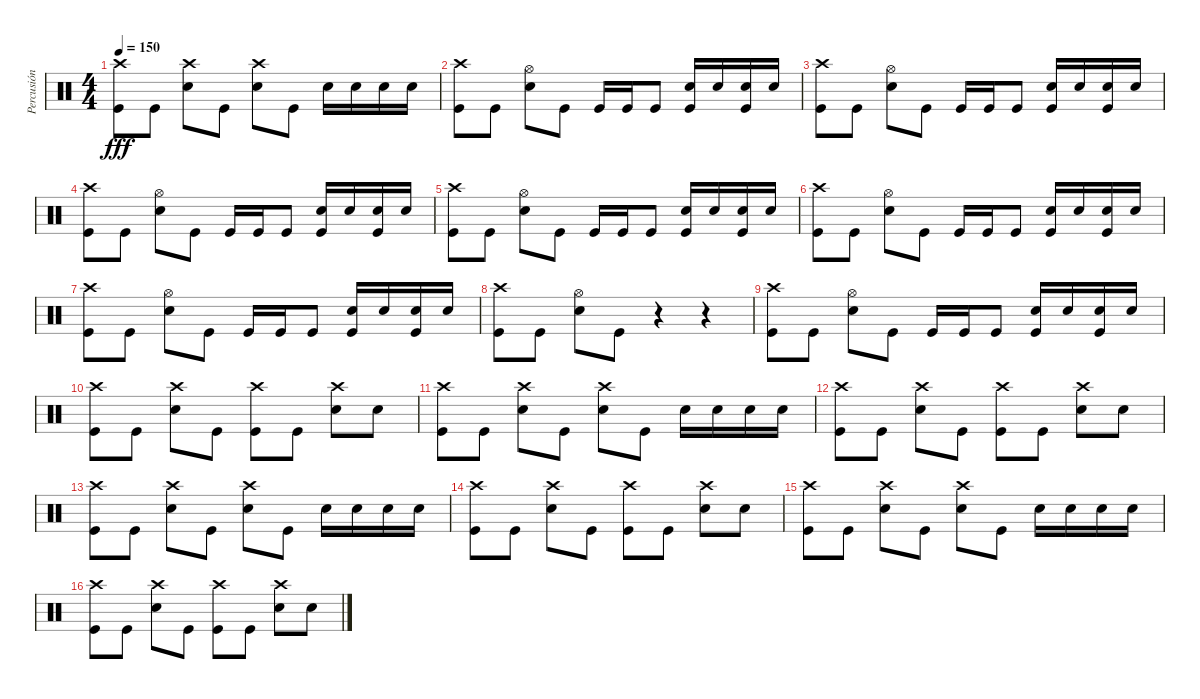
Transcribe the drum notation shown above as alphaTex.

\track ("Percusión" "Percusión") {instrument percussion}
\staff {score}
\articulation defaults
\ts (4 4)
\tempo 150
\clef neutral
\ks c
("Crash high (hit)" "Kick (hit)").8{dy fff} "Kick (hit)".8 ("Crash high (hit)" "Snare (hit) 2").8 "Kick (hit)".8 ("Crash high (hit)" "Snare (hit) 2").8 "Kick (hit)".8 "Snare (hit) 2".16 "Snare (hit) 2".16 "Snare (hit) 2".16 "Snare (hit) 2".16 |
("Kick (hit)" "Crash high (hit)").8 "Kick (hit)".8 ("Snare (hit) 2" "Hi-Hat (open)").8 "Kick (hit)".8 "Kick (hit)".16 "Kick (hit)".16 "Kick (hit)".8 ("Kick (hit)" "Snare (hit) 2").16 "Snare (hit) 2".16 ("Snare (hit) 2" "Kick (hit)").16 "Snare (hit) 2".16 |
("Kick (hit)" "Crash high (hit)").8 "Kick (hit)".8 ("Snare (hit) 2" "Hi-Hat (open)").8 "Kick (hit)".8 "Kick (hit)".16 "Kick (hit)".16 "Kick (hit)".8 ("Kick (hit)" "Snare (hit) 2").16 "Snare (hit) 2".16 ("Snare (hit) 2" "Kick (hit)").16 "Snare (hit) 2".16 |
("Kick (hit)" "Crash high (hit)").8 "Kick (hit)".8 ("Snare (hit) 2" "Hi-Hat (open)").8 "Kick (hit)".8 "Kick (hit)".16 "Kick (hit)".16 "Kick (hit)".8 ("Kick (hit)" "Snare (hit) 2").16 "Snare (hit) 2".16 ("Snare (hit) 2" "Kick (hit)").16 "Snare (hit) 2".16 |
("Kick (hit)" "Crash high (hit)").8 "Kick (hit)".8 ("Snare (hit) 2" "Hi-Hat (open)").8 "Kick (hit)".8 "Kick (hit)".16 "Kick (hit)".16 "Kick (hit)".8 ("Kick (hit)" "Snare (hit) 2").16 "Snare (hit) 2".16 ("Snare (hit) 2" "Kick (hit)").16 "Snare (hit) 2".16 |
("Kick (hit)" "Crash high (hit)").8 "Kick (hit)".8 ("Snare (hit) 2" "Hi-Hat (open)").8 "Kick (hit)".8 "Kick (hit)".16 "Kick (hit)".16 "Kick (hit)".8 ("Kick (hit)" "Snare (hit) 2").16 "Snare (hit) 2".16 ("Snare (hit) 2" "Kick (hit)").16 "Snare (hit) 2".16 |
("Kick (hit)" "Crash high (hit)").8 "Kick (hit)".8 ("Snare (hit) 2" "Hi-Hat (open)").8 "Kick (hit)".8 "Kick (hit)".16 "Kick (hit)".16 "Kick (hit)".8 ("Kick (hit)" "Snare (hit) 2").16 "Snare (hit) 2".16 ("Snare (hit) 2" "Kick (hit)").16 "Snare (hit) 2".16 |
("Kick (hit)" "Crash high (hit)").8 "Kick (hit)".8 ("Snare (hit) 2" "Hi-Hat (open)").8 "Kick (hit)".8 r.4 r.4 |
("Kick (hit)" "Crash high (hit)").8 "Kick (hit)".8 ("Snare (hit) 2" "Hi-Hat (open)").8 "Kick (hit)".8 "Kick (hit)".16 "Kick (hit)".16 "Kick (hit)".8 ("Kick (hit)" "Snare (hit) 2").16 "Snare (hit) 2".16 ("Snare (hit) 2" "Kick (hit)").16 "Snare (hit) 2".16 |
("Crash high (hit)" "Kick (hit)").8 "Kick (hit)".8 ("Crash high (hit)" "Snare (hit) 2").8 "Kick (hit)".8 ("Kick (hit)" "Crash high (hit)").8 "Kick (hit)".8 ("Snare (hit) 2" "Crash high (hit)").8 "Snare (hit) 2".8 |
("Crash high (hit)" "Kick (hit)").8 "Kick (hit)".8 ("Crash high (hit)" "Snare (hit) 2").8 "Kick (hit)".8 ("Crash high (hit)" "Snare (hit) 2").8 "Kick (hit)".8 "Snare (hit) 2".16 "Snare (hit) 2".16 "Snare (hit) 2".16 "Snare (hit) 2".16 |
("Crash high (hit)" "Kick (hit)").8 "Kick (hit)".8 ("Crash high (hit)" "Snare (hit) 2").8 "Kick (hit)".8 ("Kick (hit)" "Crash high (hit)").8 "Kick (hit)".8 ("Snare (hit) 2" "Crash high (hit)").8 "Snare (hit) 2".8 |
("Crash high (hit)" "Kick (hit)").8 "Kick (hit)".8 ("Crash high (hit)" "Snare (hit) 2").8 "Kick (hit)".8 ("Crash high (hit)" "Snare (hit) 2").8 "Kick (hit)".8 "Snare (hit) 2".16 "Snare (hit) 2".16 "Snare (hit) 2".16 "Snare (hit) 2".16 |
("Crash high (hit)" "Kick (hit)").8 "Kick (hit)".8 ("Crash high (hit)" "Snare (hit) 2").8 "Kick (hit)".8 ("Kick (hit)" "Crash high (hit)").8 "Kick (hit)".8 ("Snare (hit) 2" "Crash high (hit)").8 "Snare (hit) 2".8 |
("Crash high (hit)" "Kick (hit)").8 "Kick (hit)".8 ("Crash high (hit)" "Snare (hit) 2").8 "Kick (hit)".8 ("Crash high (hit)" "Snare (hit) 2").8 "Kick (hit)".8 "Snare (hit) 2".16 "Snare (hit) 2".16 "Snare (hit) 2".16 "Snare (hit) 2".16 |
("Crash high (hit)" "Kick (hit)").8 "Kick (hit)".8 ("Crash high (hit)" "Snare (hit) 2").8 "Kick (hit)".8 ("Kick (hit)" "Crash high (hit)").8 "Kick (hit)".8 ("Snare (hit) 2" "Crash high (hit)").8 "Snare (hit) 2".8
